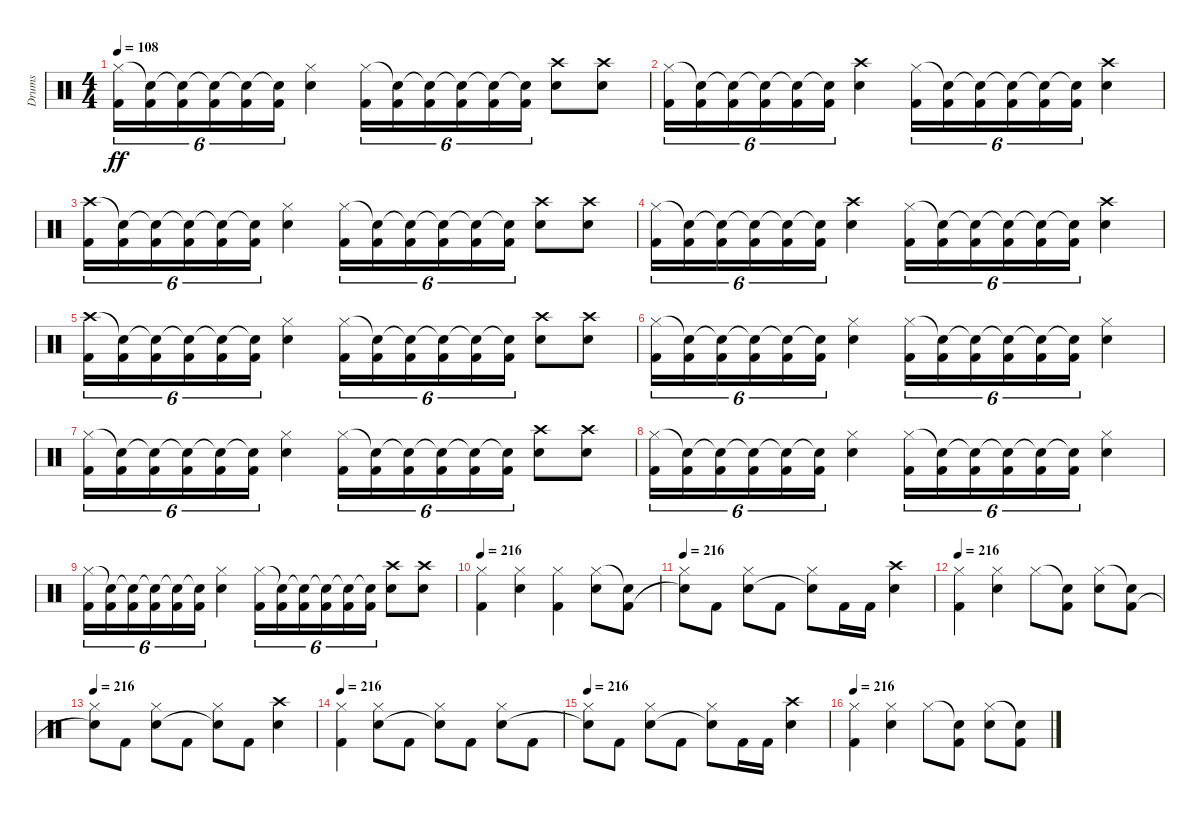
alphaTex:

\track ("Drums" "Drums") {instrument percussion}
\staff {score}
\articulation defaults
\ts (4 4)
\tempo 108
\clef neutral
\ks c
("Hi-Hat (closed)" "Kick (hit) 2").16{tu (6 4) dy ff} ("Snare (hit)"{t} "Kick (hit) 2").16{tu (6 4)} ("Snare (hit)"{t} "Kick (hit) 2").16{tu (6 4)} ("Snare (hit)"{t} "Kick (hit) 2").16{tu (6 4)} ("Snare (hit)"{t} "Kick (hit) 2").16{tu (6 4)} ("Snare (hit)"{t} "Kick (hit) 2").16{tu (6 4)} ("Hi-Hat (closed)" "Snare (hit) 2").4 ("Hi-Hat (closed)" "Kick (hit) 2").16{tu (6 4)} ("Snare (hit)"{t} "Kick (hit) 2").16{tu (6 4)} ("Snare (hit)"{t} "Kick (hit) 2").16{tu (6 4)} ("Snare (hit)"{t} "Kick (hit) 2").16{tu (6 4)} ("Snare (hit)"{t} "Kick (hit) 2").16{tu (6 4)} ("Snare (hit)"{t} "Kick (hit) 2").16{tu (6 4)} ("Crash high (hit)" "Snare (hit) 2").8 ("Crash high (hit)" "Snare (hit) 2").8 |
("Hi-Hat (closed)" "Kick (hit) 2").16{tu (6 4)} ("Snare (hit)"{t} "Kick (hit) 2").16{tu (6 4)} ("Snare (hit)"{t} "Kick (hit) 2").16{tu (6 4)} ("Snare (hit)"{t} "Kick (hit) 2").16{tu (6 4)} ("Snare (hit)"{t} "Kick (hit) 2").16{tu (6 4)} ("Snare (hit)"{t} "Kick (hit) 2").16{tu (6 4)} ("Crash high (hit)" "Snare (hit) 2").4 ("Hi-Hat (closed)" "Kick (hit) 2").16{tu (6 4)} ("Snare (hit)"{t} "Kick (hit) 2").16{tu (6 4)} ("Snare (hit)"{t} "Kick (hit) 2").16{tu (6 4)} ("Snare (hit)"{t} "Kick (hit) 2").16{tu (6 4)} ("Snare (hit)"{t} "Kick (hit) 2").16{tu (6 4)} ("Snare (hit)"{t} "Kick (hit) 2").16{tu (6 4)} ("Crash high (hit)" "Snare (hit) 2").4 |
("Crash high (hit)" "Kick (hit) 2").16{tu (6 4)} ("Snare (hit)"{t} "Kick (hit) 2").16{tu (6 4)} ("Snare (hit)"{t} "Kick (hit) 2").16{tu (6 4)} ("Snare (hit)"{t} "Kick (hit) 2").16{tu (6 4)} ("Snare (hit)"{t} "Kick (hit) 2").16{tu (6 4)} ("Snare (hit)"{t} "Kick (hit) 2").16{tu (6 4)} ("Hi-Hat (closed)" "Snare (hit) 2").4 ("Hi-Hat (closed)" "Kick (hit) 2").16{tu (6 4)} ("Snare (hit)"{t} "Kick (hit) 2").16{tu (6 4)} ("Snare (hit)"{t} "Kick (hit) 2").16{tu (6 4)} ("Snare (hit)"{t} "Kick (hit) 2").16{tu (6 4)} ("Snare (hit)"{t} "Kick (hit) 2").16{tu (6 4)} ("Snare (hit)"{t} "Kick (hit) 2").16{tu (6 4)} ("Crash high (hit)" "Snare (hit) 2").8 ("Crash high (hit)" "Snare (hit) 2").8 |
("Hi-Hat (closed)" "Kick (hit) 2").16{tu (6 4)} ("Snare (hit)"{t} "Kick (hit) 2").16{tu (6 4)} ("Snare (hit)"{t} "Kick (hit) 2").16{tu (6 4)} ("Snare (hit)"{t} "Kick (hit) 2").16{tu (6 4)} ("Snare (hit)"{t} "Kick (hit) 2").16{tu (6 4)} ("Snare (hit)"{t} "Kick (hit) 2").16{tu (6 4)} ("Crash high (hit)" "Snare (hit) 2").4 ("Hi-Hat (closed)" "Kick (hit) 2").16{tu (6 4)} ("Snare (hit)"{t} "Kick (hit) 2").16{tu (6 4)} ("Snare (hit)"{t} "Kick (hit) 2").16{tu (6 4)} ("Snare (hit)"{t} "Kick (hit) 2").16{tu (6 4)} ("Snare (hit)"{t} "Kick (hit) 2").16{tu (6 4)} ("Snare (hit)"{t} "Kick (hit) 2").16{tu (6 4)} ("Crash high (hit)" "Snare (hit) 2").4 |
("Crash high (hit)" "Kick (hit) 2").16{tu (6 4)} ("Snare (hit)"{t} "Kick (hit) 2").16{tu (6 4)} ("Snare (hit)"{t} "Kick (hit) 2").16{tu (6 4)} ("Snare (hit)"{t} "Kick (hit) 2").16{tu (6 4)} ("Snare (hit)"{t} "Kick (hit) 2").16{tu (6 4)} ("Snare (hit)"{t} "Kick (hit) 2").16{tu (6 4)} ("Hi-Hat (closed)" "Snare (hit) 2").4 ("Hi-Hat (closed)" "Kick (hit) 2").16{tu (6 4)} ("Snare (hit)"{t} "Kick (hit) 2").16{tu (6 4)} ("Snare (hit)"{t} "Kick (hit) 2").16{tu (6 4)} ("Snare (hit)"{t} "Kick (hit) 2").16{tu (6 4)} ("Snare (hit)"{t} "Kick (hit) 2").16{tu (6 4)} ("Snare (hit)"{t} "Kick (hit) 2").16{tu (6 4)} ("Crash high (hit)" "Snare (hit) 2").8 ("Crash high (hit)" "Snare (hit) 2").8 |
("Hi-Hat (closed)" "Kick (hit) 2").16{tu (6 4)} ("Snare (hit)"{t} "Kick (hit) 2").16{tu (6 4)} ("Snare (hit)"{t} "Kick (hit) 2").16{tu (6 4)} ("Snare (hit)"{t} "Kick (hit) 2").16{tu (6 4)} ("Snare (hit)"{t} "Kick (hit) 2").16{tu (6 4)} ("Snare (hit)"{t} "Kick (hit) 2").16{tu (6 4)} ("Hi-Hat (closed)" "Snare (hit) 2").4 ("Hi-Hat (closed)" "Kick (hit) 2").16{tu (6 4)} ("Snare (hit)"{t} "Kick (hit) 2").16{tu (6 4)} ("Snare (hit)"{t} "Kick (hit) 2").16{tu (6 4)} ("Snare (hit)"{t} "Kick (hit) 2").16{tu (6 4)} ("Snare (hit)"{t} "Kick (hit) 2").16{tu (6 4)} ("Snare (hit)"{t} "Kick (hit) 2").16{tu (6 4)} ("Hi-Hat (closed)" "Snare (hit) 2").4 |
("Hi-Hat (closed)" "Kick (hit) 2").16{tu (6 4)} ("Snare (hit)"{t} "Kick (hit) 2").16{tu (6 4)} ("Snare (hit)"{t} "Kick (hit) 2").16{tu (6 4)} ("Snare (hit)"{t} "Kick (hit) 2").16{tu (6 4)} ("Snare (hit)"{t} "Kick (hit) 2").16{tu (6 4)} ("Snare (hit)"{t} "Kick (hit) 2").16{tu (6 4)} ("Hi-Hat (closed)" "Snare (hit) 2").4 ("Hi-Hat (closed)" "Kick (hit) 2").16{tu (6 4)} ("Snare (hit)"{t} "Kick (hit) 2").16{tu (6 4)} ("Snare (hit)"{t} "Kick (hit) 2").16{tu (6 4)} ("Snare (hit)"{t} "Kick (hit) 2").16{tu (6 4)} ("Snare (hit)"{t} "Kick (hit) 2").16{tu (6 4)} ("Snare (hit)"{t} "Kick (hit) 2").16{tu (6 4)} ("Crash high (hit)" "Snare (hit) 2").8 ("Crash high (hit)" "Snare (hit) 2").8 |
("Hi-Hat (closed)" "Kick (hit) 2").16{tu (6 4)} ("Snare (hit)"{t} "Kick (hit) 2").16{tu (6 4)} ("Snare (hit)"{t} "Kick (hit) 2").16{tu (6 4)} ("Snare (hit)"{t} "Kick (hit) 2").16{tu (6 4)} ("Snare (hit)"{t} "Kick (hit) 2").16{tu (6 4)} ("Snare (hit)"{t} "Kick (hit) 2").16{tu (6 4)} ("Hi-Hat (closed)" "Snare (hit) 2").4 ("Hi-Hat (closed)" "Kick (hit) 2").16{tu (6 4)} ("Snare (hit)"{t} "Kick (hit) 2").16{tu (6 4)} ("Snare (hit)"{t} "Kick (hit) 2").16{tu (6 4)} ("Snare (hit)"{t} "Kick (hit) 2").16{tu (6 4)} ("Snare (hit)"{t} "Kick (hit) 2").16{tu (6 4)} ("Snare (hit)"{t} "Kick (hit) 2").16{tu (6 4)} ("Hi-Hat (closed)" "Snare (hit) 2").4 |
("Hi-Hat (closed)" "Kick (hit) 2").16{tu (6 4)} ("Snare (hit)"{t} "Kick (hit) 2").16{tu (6 4)} ("Snare (hit)"{t} "Kick (hit) 2").16{tu (6 4)} ("Snare (hit)"{t} "Kick (hit) 2").16{tu (6 4)} ("Snare (hit)"{t} "Kick (hit) 2").16{tu (6 4)} ("Snare (hit)"{t} "Kick (hit) 2").16{tu (6 4)} ("Hi-Hat (closed)" "Snare (hit) 2").4 ("Hi-Hat (closed)" "Kick (hit) 2").16{tu (6 4)} ("Snare (hit)"{t} "Kick (hit) 2").16{tu (6 4)} ("Snare (hit)"{t} "Kick (hit) 2").16{tu (6 4)} ("Snare (hit)"{t} "Kick (hit) 2").16{tu (6 4)} ("Snare (hit)"{t} "Kick (hit) 2").16{tu (6 4)} ("Snare (hit)"{t} "Kick (hit) 2").16{tu (6 4)} ("Crash high (hit)" "Snare (hit) 2").8 ("Crash high (hit)" "Snare (hit) 2").8 |
\tempo 216
("Hi-Hat (closed)" "Kick (hit) 2").4{volume 15} ("Hi-Hat (closed)" "Snare (hit) 2").4 ("Hi-Hat (closed)" "Kick (hit) 2").4 ("Hi-Hat (closed)" "Snare (hit) 2").8 ("Snare (hit)"{t} "Kick (hit) 2").8 |
\tempo 216
("Hi-Hat (closed)" "Snare (hit)"{t}).8 "Kick (hit) 2".8 ("Hi-Hat (closed)" "Snare (hit) 2").8 "Kick (hit) 2".8 ("Hi-Hat (closed)" "Snare (hit)"{t}).8 "Kick (hit) 2".16 "Kick (hit) 2".16 ("Crash high (hit)" "Snare (hit) 2").4 |
\tempo 216
("Hi-Hat (closed)" "Kick (hit) 2").4 ("Hi-Hat (closed)" "Snare (hit) 2").4 "Hi-Hat (closed)".8 ("Snare (hit)"{t} "Kick (hit) 2").8 ("Hi-Hat (closed)" "Snare (hit) 2").8 ("Snare (hit)"{t} "Kick (hit) 2").8 |
\tempo 216
("Hi-Hat (closed)" "Snare (hit)"{t}).8 "Kick (hit) 2".8 ("Hi-Hat (closed)" "Snare (hit) 2").8 "Kick (hit) 2".8 ("Hi-Hat (closed)" "Snare (hit)"{t}).8 "Kick (hit) 2".8 ("Crash high (hit)" "Snare (hit) 2").4 |
\tempo 216
("Hi-Hat (closed)" "Kick (hit) 2").4 ("Hi-Hat (closed)" "Snare (hit) 2").8 "Kick (hit) 2".8 ("Hi-Hat (closed)" "Snare (hit)"{t}).8 "Kick (hit) 2".8 ("Hi-Hat (closed)" "Snare (hit) 2").8 "Kick (hit) 2".8 |
\tempo 216
("Hi-Hat (closed)" "Snare (hit)"{t}).8 "Kick (hit) 2".8 ("Hi-Hat (closed)" "Snare (hit) 2").8 "Kick (hit) 2".8 ("Hi-Hat (closed)" "Snare (hit)"{t}).8 "Kick (hit) 2".16 "Kick (hit) 2".16 ("Crash high (hit)" "Snare (hit) 2").4 |
\tempo 216
("Hi-Hat (closed)" "Kick (hit) 2").4 ("Hi-Hat (closed)" "Snare (hit) 2").4 "Hi-Hat (closed)".8 ("Snare (hit)"{t} "Kick (hit) 2").8 ("Hi-Hat (closed)" "Snare (hit) 2").8 ("Snare (hit)"{t} "Kick (hit) 2").8
